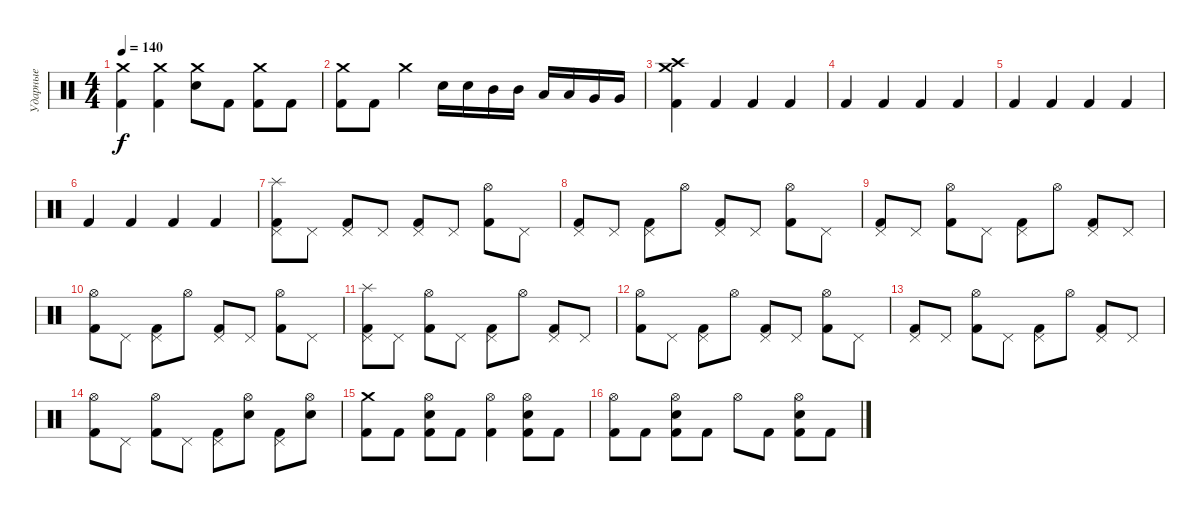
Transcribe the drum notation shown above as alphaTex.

\track ("Ударные" "Ударные") {instrument percussion}
\staff {score}
\articulation defaults
\ts (4 4)
\tempo 140
\clef neutral
\ks c
("Crash medium (hit)" "Kick (hit) 2").4{dy f} ("Crash medium (hit)" "Kick (hit) 2").4 ("Crash medium (hit)" "Electric Snare (hit)").8 "Kick (hit) 2".8 ("Crash medium (hit)" "Kick (hit) 2").8 "Kick (hit) 2".8 |
("Crash medium (hit)" "Kick (hit) 2").8 "Kick (hit) 2".8 "Crash medium (hit)".4 "Electric Snare (hit)".16 "Electric Snare (hit)".16 "Mid Tom (hit)".16 "Mid Tom (hit)".16 "Low Tom (hit)".16 "Low Tom (hit)".16 "Very Low Tom (hit)".16 "Very Low Tom (hit)".16 |
("Crash medium (hit)" "Crash high (hit)" "Kick (hit) 2").4 "Kick (hit) 2".4 "Kick (hit) 2".4 "Kick (hit) 2".4 |
"Kick (hit) 2".4 "Kick (hit) 2".4 "Kick (hit) 2".4 "Kick (hit) 2".4 |
"Kick (hit) 2".4 "Kick (hit) 2".4 "Kick (hit) 2".4 "Kick (hit) 2".4 |
"Kick (hit) 2".4 "Kick (hit) 2".4 "Kick (hit) 2".4 "Kick (hit) 2".4 |
("Pedal Hi-Hat (hit)" "Splash (hit)" "Kick (hit) 2").8 "Pedal Hi-Hat (hit)".8 ("Pedal Hi-Hat (hit)" "Kick (hit) 2").8 "Pedal Hi-Hat (hit)".8 ("Pedal Hi-Hat (hit)" "Kick (hit) 2").8 "Pedal Hi-Hat (hit)".8 ("Hi-Hat (open)" "Kick (hit) 2").8 "Pedal Hi-Hat (hit)".8 |
("Pedal Hi-Hat (hit)" "Kick (hit) 2").8 "Pedal Hi-Hat (hit)".8 ("Pedal Hi-Hat (hit)" "Kick (hit) 2").8 "Hi-Hat (open)".8 ("Pedal Hi-Hat (hit)" "Kick (hit) 2").8 "Pedal Hi-Hat (hit)".8 ("Hi-Hat (open)" "Kick (hit) 2").8 "Pedal Hi-Hat (hit)".8 |
("Pedal Hi-Hat (hit)" "Kick (hit) 2").8 "Pedal Hi-Hat (hit)".8 ("Hi-Hat (open)" "Kick (hit) 2").8 "Pedal Hi-Hat (hit)".8 ("Pedal Hi-Hat (hit)" "Kick (hit) 2").8 "Hi-Hat (open)".8 ("Pedal Hi-Hat (hit)" "Kick (hit) 2").8 "Pedal Hi-Hat (hit)".8 |
("Hi-Hat (open)" "Kick (hit) 2").8 "Pedal Hi-Hat (hit)".8 ("Pedal Hi-Hat (hit)" "Kick (hit) 2").8 "Hi-Hat (open)".8 ("Pedal Hi-Hat (hit)" "Kick (hit) 2").8 "Pedal Hi-Hat (hit)".8 ("Hi-Hat (open)" "Kick (hit) 2").8 "Pedal Hi-Hat (hit)".8 |
("Pedal Hi-Hat (hit)" "Splash (hit)" "Kick (hit) 2").8 "Pedal Hi-Hat (hit)".8 ("Hi-Hat (open)" "Kick (hit) 2").8 "Pedal Hi-Hat (hit)".8 ("Pedal Hi-Hat (hit)" "Kick (hit) 2").8 "Hi-Hat (open)".8 ("Pedal Hi-Hat (hit)" "Kick (hit) 2").8 "Pedal Hi-Hat (hit)".8 |
("Hi-Hat (open)" "Kick (hit) 2").8 "Pedal Hi-Hat (hit)".8 ("Pedal Hi-Hat (hit)" "Kick (hit) 2").8 "Hi-Hat (open)".8 ("Pedal Hi-Hat (hit)" "Kick (hit) 2").8 "Pedal Hi-Hat (hit)".8 ("Hi-Hat (open)" "Kick (hit) 2").8 "Pedal Hi-Hat (hit)".8 |
("Pedal Hi-Hat (hit)" "Kick (hit) 2").8 "Pedal Hi-Hat (hit)".8 ("Hi-Hat (open)" "Kick (hit) 2").8 "Pedal Hi-Hat (hit)".8 ("Pedal Hi-Hat (hit)" "Kick (hit) 2").8 "Hi-Hat (open)".8 ("Pedal Hi-Hat (hit)" "Kick (hit) 2").8 "Pedal Hi-Hat (hit)".8 |
("Hi-Hat (open)" "Kick (hit) 2").8 "Pedal Hi-Hat (hit)".8 ("Hi-Hat (open)" "Kick (hit) 2").8 "Pedal Hi-Hat (hit)".8 ("Pedal Hi-Hat (hit)" "Kick (hit) 2").8 ("Hi-Hat (open)" "Electric Snare (hit)").8 ("Pedal Hi-Hat (hit)" "Kick (hit) 2").8 ("Hi-Hat (open)" "Electric Snare (hit)").8 |
("Crash medium (hit)" "Kick (hit) 2").8 "Kick (hit) 2".8 ("Hi-Hat (open)" "Electric Snare (hit)" "Kick (hit) 2").8 "Kick (hit) 2".8 ("Hi-Hat (open)" "Kick (hit) 2").4 ("Hi-Hat (open)" "Electric Snare (hit)" "Kick (hit) 2").8 "Kick (hit) 2".8 |
("Hi-Hat (open)" "Kick (hit) 2").8 "Kick (hit) 2".8 ("Hi-Hat (open)" "Electric Snare (hit)" "Kick (hit) 2").8 "Kick (hit) 2".8 "Hi-Hat (open)".8 "Kick (hit) 2".8 ("Hi-Hat (open)" "Electric Snare (hit)" "Kick (hit) 2").8 "Kick (hit) 2".8
